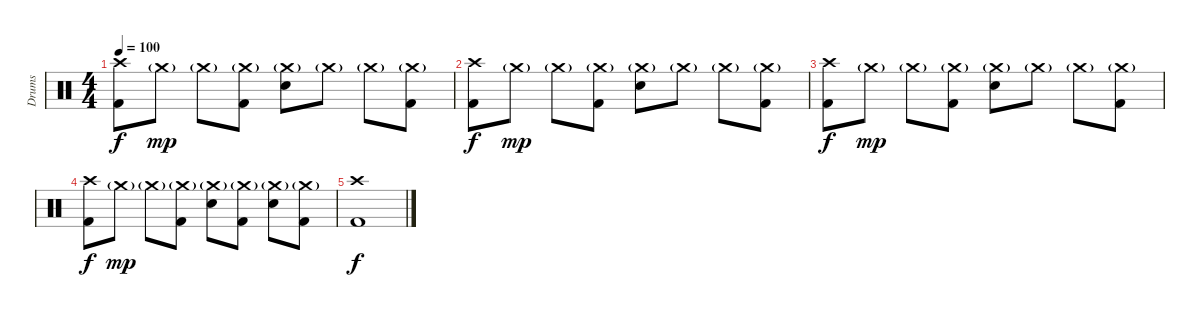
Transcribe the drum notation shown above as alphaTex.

\track ("Drums" "Drums") {instrument percussion}
\staff {score}
\articulation defaults
\ts (4 4)
\tempo 100
\clef neutral
\ks c
("Crash high (hit)" "Kick (hit) 2").8{dy f} "Crash medium (hit)"{g}.8{dy mp} "Crash medium (hit)"{g}.8 ("Crash medium (hit)"{g} "Kick (hit) 2").8 ("Crash medium (hit)"{g} "Electric Snare (hit)").8 "Crash medium (hit)"{g}.8 "Crash medium (hit)"{g}.8 ("Crash medium (hit)"{g} "Kick (hit) 2").8 |
("Crash high (hit)" "Kick (hit) 2").8{dy f} "Crash medium (hit)"{g}.8{dy mp} "Crash medium (hit)"{g}.8 ("Crash medium (hit)"{g} "Kick (hit) 2").8 ("Crash medium (hit)"{g} "Electric Snare (hit)").8 "Crash medium (hit)"{g}.8 "Crash medium (hit)"{g}.8 ("Crash medium (hit)"{g} "Kick (hit) 2").8 |
("Crash high (hit)" "Kick (hit) 2").8{dy f} "Crash medium (hit)"{g}.8{dy mp} "Crash medium (hit)"{g}.8 ("Crash medium (hit)"{g} "Kick (hit) 2").8 ("Crash medium (hit)"{g} "Electric Snare (hit)").8 "Crash medium (hit)"{g}.8 "Crash medium (hit)"{g}.8 ("Crash medium (hit)"{g} "Kick (hit) 2").8 |
("Crash high (hit)" "Kick (hit) 2").8{dy f} "Crash medium (hit)"{g}.8{dy mp} "Crash medium (hit)"{g}.8 ("Crash medium (hit)"{g} "Kick (hit) 2").8 ("Crash medium (hit)"{g} "Electric Snare (hit)").8 ("Crash medium (hit)"{g} "Kick (hit) 2").8 ("Crash medium (hit)"{g} "Electric Snare (hit)").8 ("Crash medium (hit)"{g} "Kick (hit) 2").8 |
("Crash high (hit)" "Kick (hit) 2").1{dy f}
